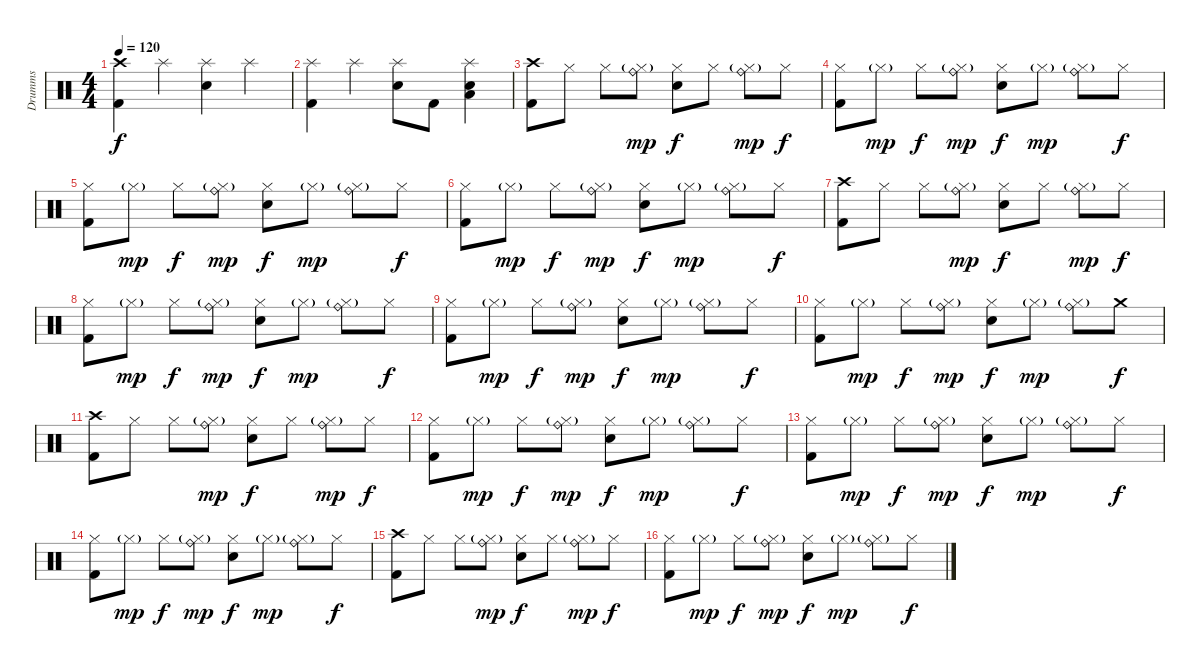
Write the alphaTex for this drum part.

\track ("Drumms" "Drumms") {instrument percussion}
\staff {score}
\articulation defaults
\ts (4 4)
\tempo 120
\clef neutral
\ks c
("Kick (hit) 2" "Crash high (hit)").4{dy f} "Splash (hit)".4 ("Splash (hit)" "Snare (hit) 2").4 "Splash (hit)".4 |
("Kick (hit) 2" "Splash (hit)").4 "Splash (hit)".4 ("Splash (hit)" "Snare (hit) 2").8 "Kick (hit) 2".8 ("Low Tom (hit)" "Splash (hit)" "Snare (hit) 2").4 |
("Kick (hit) 2" "Crash high (hit)").8 "Hi-Hat (closed)".8 "Hi-Hat (closed)".8 ("Ride (bell)" "Hi-Hat (closed)"{g}).8{dy mp} ("Hi-Hat (closed)" "Snare (hit) 2").8{dy f} "Hi-Hat (closed)".8 ("Ride (bell)" "Hi-Hat (closed)"{g}).8{dy mp} "Hi-Hat (closed)".8{dy f} |
("Kick (hit) 2" "Hi-Hat (closed)").8 "Hi-Hat (closed)"{g}.8{dy mp} "Hi-Hat (closed)".8{dy f} ("Ride (bell)" "Hi-Hat (closed)"{g}).8{dy mp} ("Hi-Hat (closed)" "Snare (hit) 2").8{dy f} "Hi-Hat (closed)"{g}.8{dy mp} ("Ride (bell)" "Hi-Hat (closed)"{g}).8 "Hi-Hat (closed)".8{dy f} |
("Kick (hit) 2" "Hi-Hat (closed)").8 "Hi-Hat (closed)"{g}.8{dy mp} "Hi-Hat (closed)".8{dy f} ("Ride (bell)" "Hi-Hat (closed)"{g}).8{dy mp} ("Hi-Hat (closed)" "Snare (hit) 2").8{dy f} "Hi-Hat (closed)"{g}.8{dy mp} ("Ride (bell)" "Hi-Hat (closed)"{g}).8 "Hi-Hat (closed)".8{dy f} |
("Kick (hit) 2" "Hi-Hat (closed)").8 "Hi-Hat (closed)"{g}.8{dy mp} "Hi-Hat (closed)".8{dy f} ("Ride (bell)" "Hi-Hat (closed)"{g}).8{dy mp} ("Hi-Hat (closed)" "Snare (hit) 2").8{dy f} "Hi-Hat (closed)"{g}.8{dy mp} ("Ride (bell)" "Hi-Hat (closed)"{g}).8 "Hi-Hat (closed)".8{dy f} |
("Kick (hit) 2" "Crash high (hit)").8 "Hi-Hat (closed)".8 "Hi-Hat (closed)".8 ("Ride (bell)" "Hi-Hat (closed)"{g}).8{dy mp} ("Hi-Hat (closed)" "Snare (hit) 2").8{dy f} "Hi-Hat (closed)".8 ("Ride (bell)" "Hi-Hat (closed)"{g}).8{dy mp} "Hi-Hat (closed)".8{dy f} |
("Kick (hit) 2" "Hi-Hat (closed)").8 "Hi-Hat (closed)"{g}.8{dy mp} "Hi-Hat (closed)".8{dy f} ("Ride (bell)" "Hi-Hat (closed)"{g}).8{dy mp} ("Hi-Hat (closed)" "Snare (hit) 2").8{dy f} "Hi-Hat (closed)"{g}.8{dy mp} ("Ride (bell)" "Hi-Hat (closed)"{g}).8 "Hi-Hat (closed)".8{dy f} |
("Kick (hit) 2" "Hi-Hat (closed)").8 "Hi-Hat (closed)"{g}.8{dy mp} "Hi-Hat (closed)".8{dy f} ("Ride (bell)" "Hi-Hat (closed)"{g}).8{dy mp} ("Hi-Hat (closed)" "Snare (hit) 2").8{dy f} "Hi-Hat (closed)"{g}.8{dy mp} ("Ride (bell)" "Hi-Hat (closed)"{g}).8 "Hi-Hat (closed)".8{dy f} |
("Kick (hit) 2" "Hi-Hat (closed)").8 "Hi-Hat (closed)"{g}.8{dy mp} "Hi-Hat (closed)".8{dy f} ("Ride (bell)" "Hi-Hat (closed)"{g}).8{dy mp} ("Hi-Hat (closed)" "Snare (hit) 2").8{dy f} "Hi-Hat (closed)"{g}.8{dy mp} ("Ride (bell)" "Hi-Hat (closed)"{g}).8 "Crash medium (hit)".8{dy f} |
("Kick (hit) 2" "Crash high (hit)").8 "Hi-Hat (closed)".8 "Hi-Hat (closed)".8 ("Ride (bell)" "Hi-Hat (closed)"{g}).8{dy mp} ("Hi-Hat (closed)" "Snare (hit) 2").8{dy f} "Hi-Hat (closed)".8 ("Ride (bell)" "Hi-Hat (closed)"{g}).8{dy mp} "Hi-Hat (closed)".8{dy f} |
("Kick (hit) 2" "Hi-Hat (closed)").8 "Hi-Hat (closed)"{g}.8{dy mp} "Hi-Hat (closed)".8{dy f} ("Ride (bell)" "Hi-Hat (closed)"{g}).8{dy mp} ("Hi-Hat (closed)" "Snare (hit) 2").8{dy f} "Hi-Hat (closed)"{g}.8{dy mp} ("Ride (bell)" "Hi-Hat (closed)"{g}).8 "Hi-Hat (closed)".8{dy f} |
("Kick (hit) 2" "Hi-Hat (closed)").8 "Hi-Hat (closed)"{g}.8{dy mp} "Hi-Hat (closed)".8{dy f} ("Ride (bell)" "Hi-Hat (closed)"{g}).8{dy mp} ("Hi-Hat (closed)" "Snare (hit) 2").8{dy f} "Hi-Hat (closed)"{g}.8{dy mp} ("Ride (bell)" "Hi-Hat (closed)"{g}).8 "Hi-Hat (closed)".8{dy f} |
("Kick (hit) 2" "Hi-Hat (closed)").8 "Hi-Hat (closed)"{g}.8{dy mp} "Hi-Hat (closed)".8{dy f} ("Ride (bell)" "Hi-Hat (closed)"{g}).8{dy mp} ("Hi-Hat (closed)" "Snare (hit) 2").8{dy f} "Hi-Hat (closed)"{g}.8{dy mp} ("Ride (bell)" "Hi-Hat (closed)"{g}).8 "Hi-Hat (closed)".8{dy f} |
("Kick (hit) 2" "Crash high (hit)").8 "Hi-Hat (closed)".8 "Hi-Hat (closed)".8 ("Ride (bell)" "Hi-Hat (closed)"{g}).8{dy mp} ("Hi-Hat (closed)" "Snare (hit) 2").8{dy f} "Hi-Hat (closed)".8 ("Ride (bell)" "Hi-Hat (closed)"{g}).8{dy mp} "Hi-Hat (closed)".8{dy f} |
("Kick (hit) 2" "Hi-Hat (closed)").8 "Hi-Hat (closed)"{g}.8{dy mp} "Hi-Hat (closed)".8{dy f} ("Ride (bell)" "Hi-Hat (closed)"{g}).8{dy mp} ("Hi-Hat (closed)" "Snare (hit) 2").8{dy f} "Hi-Hat (closed)"{g}.8{dy mp} ("Ride (bell)" "Hi-Hat (closed)"{g}).8 "Hi-Hat (closed)".8{dy f}
